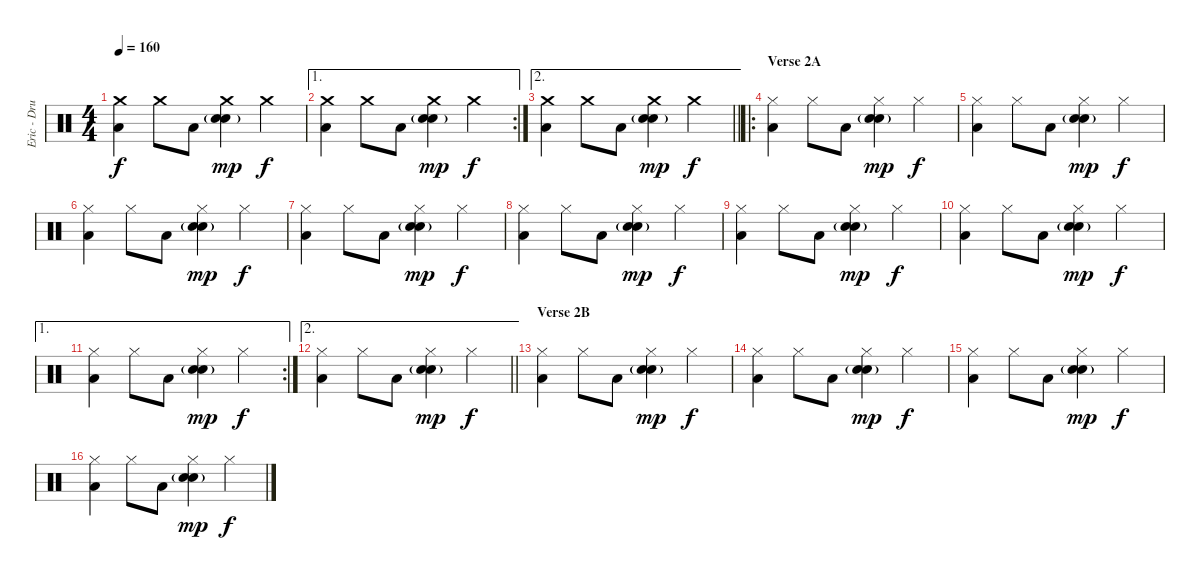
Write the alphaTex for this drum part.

\track ("Eric - Drums" "Eric - Dru") {instrument percussion}
\staff {score}
\articulation defaults
\ts (4 4)
\tempo 160
\clef neutral
\ks c
("Crash medium (hit)" "Low Floor Tom (hit)").4{dy f} "Crash medium (hit)".8 "Low Floor Tom (hit)".8 ("Crash medium (hit)" "Electric Snare (hit)" "Snare (hit) 2"{g}).4{dy mp} "Crash medium (hit)".4{dy f} |
\ae 1
\rc 2
("Crash medium (hit)" "Low Floor Tom (hit)").4 "Crash medium (hit)".8 "Low Floor Tom (hit)".8 ("Crash medium (hit)" "Electric Snare (hit)" "Snare (hit) 2"{g}).4{dy mp} "Crash medium (hit)".4{dy f} |
\ae 2
\barLineRight lightlight
("Crash medium (hit)" "Low Floor Tom (hit)").4 "Crash medium (hit)".8 "Low Floor Tom (hit)".8 ("Crash medium (hit)" "Electric Snare (hit)" "Snare (hit) 2"{g}).4{dy mp} "Crash medium (hit)".4{dy f} |
\ro
\section ("" "Verse 2A")
("Hi-Hat (closed)" "Low Floor Tom (hit)").4 "Hi-Hat (closed)".8 "Low Floor Tom (hit)".8 ("Hi-Hat (closed)" "Electric Snare (hit)" "Snare (hit) 2"{g}).4{dy mp} "Hi-Hat (closed)".4{dy f} |
("Hi-Hat (closed)" "Low Floor Tom (hit)").4 "Hi-Hat (closed)".8 "Low Floor Tom (hit)".8 ("Hi-Hat (closed)" "Electric Snare (hit)" "Snare (hit) 2"{g}).4{dy mp} "Hi-Hat (closed)".4{dy f} |
("Hi-Hat (closed)" "Low Floor Tom (hit)").4 "Hi-Hat (closed)".8 "Low Floor Tom (hit)".8 ("Hi-Hat (closed)" "Electric Snare (hit)" "Snare (hit) 2"{g}).4{dy mp} "Hi-Hat (closed)".4{dy f} |
("Hi-Hat (closed)" "Low Floor Tom (hit)").4 "Hi-Hat (closed)".8 "Low Floor Tom (hit)".8 ("Hi-Hat (closed)" "Electric Snare (hit)" "Snare (hit) 2"{g}).4{dy mp} "Hi-Hat (closed)".4{dy f} |
("Hi-Hat (closed)" "Low Floor Tom (hit)").4 "Hi-Hat (closed)".8 "Low Floor Tom (hit)".8 ("Hi-Hat (closed)" "Electric Snare (hit)" "Snare (hit) 2"{g}).4{dy mp} "Hi-Hat (closed)".4{dy f} |
("Hi-Hat (closed)" "Low Floor Tom (hit)").4 "Hi-Hat (closed)".8 "Low Floor Tom (hit)".8 ("Hi-Hat (closed)" "Electric Snare (hit)" "Snare (hit) 2"{g}).4{dy mp} "Hi-Hat (closed)".4{dy f} |
("Hi-Hat (closed)" "Low Floor Tom (hit)").4 "Hi-Hat (closed)".8 "Low Floor Tom (hit)".8 ("Hi-Hat (closed)" "Electric Snare (hit)" "Snare (hit) 2"{g}).4{dy mp} "Hi-Hat (closed)".4{dy f} |
\ae 1
\rc 2
("Hi-Hat (closed)" "Low Floor Tom (hit)").4 "Hi-Hat (closed)".8 "Low Floor Tom (hit)".8 ("Hi-Hat (closed)" "Electric Snare (hit)" "Snare (hit) 2"{g}).4{dy mp} "Hi-Hat (closed)".4{dy f} |
\ae 2
\barLineRight lightlight
("Hi-Hat (closed)" "Low Floor Tom (hit)").4 "Hi-Hat (closed)".8 "Low Floor Tom (hit)".8 ("Hi-Hat (closed)" "Electric Snare (hit)" "Snare (hit) 2"{g}).4{dy mp} "Hi-Hat (closed)".4{dy f} |
\section ("" "Verse 2B")
("Hi-Hat (closed)" "Low Floor Tom (hit)").4 "Hi-Hat (closed)".8 "Low Floor Tom (hit)".8 ("Hi-Hat (closed)" "Electric Snare (hit)" "Snare (hit) 2"{g}).4{dy mp} "Hi-Hat (closed)".4{dy f} |
("Hi-Hat (closed)" "Low Floor Tom (hit)").4 "Hi-Hat (closed)".8 "Low Floor Tom (hit)".8 ("Hi-Hat (closed)" "Electric Snare (hit)" "Snare (hit) 2"{g}).4{dy mp} "Hi-Hat (closed)".4{dy f} |
("Hi-Hat (closed)" "Low Floor Tom (hit)").4 "Hi-Hat (closed)".8 "Low Floor Tom (hit)".8 ("Hi-Hat (closed)" "Electric Snare (hit)" "Snare (hit) 2"{g}).4{dy mp} "Hi-Hat (closed)".4{dy f} |
("Hi-Hat (closed)" "Low Floor Tom (hit)").4 "Hi-Hat (closed)".8 "Low Floor Tom (hit)".8 ("Hi-Hat (closed)" "Electric Snare (hit)" "Snare (hit) 2"{g}).4{dy mp} "Hi-Hat (closed)".4{dy f}
